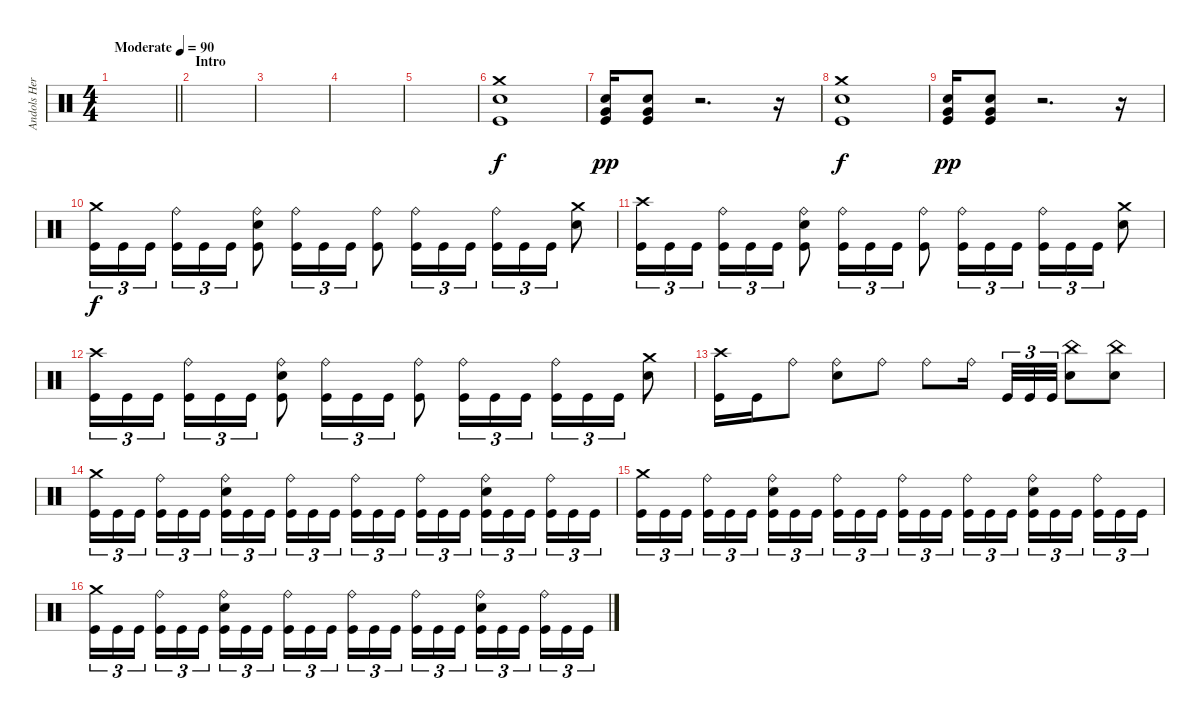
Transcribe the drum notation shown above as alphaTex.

\track ("Andols Herrick" "Andols Her") {instrument percussion}
\staff
\articulation defaults
\ts (4 4)
\tempo (90 "Moderate")
\clef neutral
\barLineRight lightlight
\ks c
|
\section ("" "Intro")
|
|
|
|
("Crash medium (hit)" "Electric Snare (hit)" "Kick (hit)").1 |
("Electric Snare (hit)" "Very Low Tom (hit)" "Kick (hit)").16{dy pp} ("Electric Snare (hit)" "Very Low Tom (hit)" "Kick (hit)").8 r.2{d} r.16 |
("Crash medium (hit)" "Electric Snare (hit)" "Kick (hit)").1{dy f} |
("Electric Snare (hit)" "Very Low Tom (hit)" "Kick (hit)").16{dy pp} ("Electric Snare (hit)" "Very Low Tom (hit)" "Kick (hit)").8 r.2{d} r.16 |
("Crash medium (hit)" "Kick (hit)").16{tu (3 2) dy f} "Kick (hit)".16{tu (3 2)} "Kick (hit)".16{tu (3 2) beam splitsecondary} ("Ride (bell)" "Kick (hit)").16{tu (3 2)} "Kick (hit)".16{tu (3 2)} "Kick (hit)".16{tu (3 2)} ("Ride (bell)" "Electric Snare (hit)" "Kick (hit)").8 ("Ride (bell)" "Kick (hit)").16{tu (3 2)} "Kick (hit)".16{tu (3 2)} "Kick (hit)".16{tu (3 2)} ("Ride (bell)" "Kick (hit)").8 ("Ride (bell)" "Kick (hit)").16{tu (3 2)} "Kick (hit)".16{tu (3 2)} "Kick (hit)".16{tu (3 2)} ("Ride (bell)" "Kick (hit)").16{tu (3 2)} "Kick (hit)".16{tu (3 2)} "Kick (hit)".16{tu (3 2)} ("Crash medium (hit)" "Electric Snare (hit)").8 |
("Crash high (hit)" "Kick (hit)").16{tu (3 2)} "Kick (hit)".16{tu (3 2)} "Kick (hit)".16{tu (3 2) beam splitsecondary} ("Ride (bell)" "Kick (hit)").16{tu (3 2)} "Kick (hit)".16{tu (3 2)} "Kick (hit)".16{tu (3 2)} ("Ride (bell)" "Electric Snare (hit)" "Kick (hit)").8 ("Ride (bell)" "Kick (hit)").16{tu (3 2)} "Kick (hit)".16{tu (3 2)} "Kick (hit)".16{tu (3 2)} ("Ride (bell)" "Kick (hit)").8 ("Ride (bell)" "Kick (hit)").16{tu (3 2)} "Kick (hit)".16{tu (3 2)} "Kick (hit)".16{tu (3 2)} ("Ride (bell)" "Kick (hit)").16{tu (3 2)} "Kick (hit)".16{tu (3 2)} "Kick (hit)".16{tu (3 2)} ("Crash medium (hit)" "Electric Snare (hit)").8 |
("Crash high (hit)" "Kick (hit)").16{tu (3 2)} "Kick (hit)".16{tu (3 2)} "Kick (hit)".16{tu (3 2) beam splitsecondary} ("Ride (bell)" "Kick (hit)").16{tu (3 2)} "Kick (hit)".16{tu (3 2)} "Kick (hit)".16{tu (3 2)} ("Ride (bell)" "Electric Snare (hit)" "Kick (hit)").8 ("Ride (bell)" "Kick (hit)").16{tu (3 2)} "Kick (hit)".16{tu (3 2)} "Kick (hit)".16{tu (3 2)} ("Ride (bell)" "Kick (hit)").8 ("Ride (bell)" "Kick (hit)").16{tu (3 2)} "Kick (hit)".16{tu (3 2)} "Kick (hit)".16{tu (3 2)} ("Ride (bell)" "Kick (hit)").16{tu (3 2)} "Kick (hit)".16{tu (3 2)} "Kick (hit)".16{tu (3 2)} ("Crash medium (hit)" "Electric Snare (hit)").8 |
("Crash high (hit)" "Kick (hit)").16 "Kick (hit)".16 "Ride (bell)".8 ("Ride (bell)" "Electric Snare (hit)").8 "Ride (bell)".8 "Ride (bell)".8 "Ride (bell)".16{beam splitsecondary} "Kick (hit)".32{tu (3 2)} "Kick (hit)".32{tu (3 2)} "Kick (hit)".32{tu (3 2)} ("China (hit)" "Electric Snare (hit)").8 ("China (hit)" "Electric Snare (hit)").8 |
("Crash medium (hit)" "Kick (hit)").16{tu (3 2)} "Kick (hit)".16{tu (3 2)} "Kick (hit)".16{tu (3 2) beam splitsecondary} ("Ride (bell)" "Kick (hit)").16{tu (3 2)} "Kick (hit)".16{tu (3 2)} "Kick (hit)".16{tu (3 2)} ("Ride (bell)" "Electric Snare (hit)" "Kick (hit)").16{tu (3 2)} "Kick (hit)".16{tu (3 2)} "Kick (hit)".16{tu (3 2) beam splitsecondary} ("Ride (bell)" "Kick (hit)").16{tu (3 2)} "Kick (hit)".16{tu (3 2)} "Kick (hit)".16{tu (3 2)} ("Ride (bell)" "Kick (hit)").16{tu (3 2)} "Kick (hit)".16{tu (3 2)} "Kick (hit)".16{tu (3 2) beam splitsecondary} ("Ride (bell)" "Kick (hit)").16{tu (3 2)} "Kick (hit)".16{tu (3 2)} "Kick (hit)".16{tu (3 2)} ("Ride (bell)" "Electric Snare (hit)" "Kick (hit)").16{tu (3 2)} "Kick (hit)".16{tu (3 2)} "Kick (hit)".16{tu (3 2) beam splitsecondary} ("Ride (bell)" "Kick (hit)").16{tu (3 2)} "Kick (hit)".16{tu (3 2)} "Kick (hit)".16{tu (3 2)} |
("Crash medium (hit)" "Kick (hit)").16{tu (3 2)} "Kick (hit)".16{tu (3 2)} "Kick (hit)".16{tu (3 2) beam splitsecondary} ("Ride (bell)" "Kick (hit)").16{tu (3 2)} "Kick (hit)".16{tu (3 2)} "Kick (hit)".16{tu (3 2)} ("Ride (bell)" "Electric Snare (hit)" "Kick (hit)").16{tu (3 2)} "Kick (hit)".16{tu (3 2)} "Kick (hit)".16{tu (3 2) beam splitsecondary} ("Ride (bell)" "Kick (hit)").16{tu (3 2)} "Kick (hit)".16{tu (3 2)} "Kick (hit)".16{tu (3 2)} ("Ride (bell)" "Kick (hit)").16{tu (3 2)} "Kick (hit)".16{tu (3 2)} "Kick (hit)".16{tu (3 2) beam splitsecondary} ("Ride (bell)" "Kick (hit)").16{tu (3 2)} "Kick (hit)".16{tu (3 2)} "Kick (hit)".16{tu (3 2)} ("Ride (bell)" "Electric Snare (hit)" "Kick (hit)").16{tu (3 2)} "Kick (hit)".16{tu (3 2)} "Kick (hit)".16{tu (3 2) beam splitsecondary} ("Ride (bell)" "Kick (hit)").16{tu (3 2)} "Kick (hit)".16{tu (3 2)} "Kick (hit)".16{tu (3 2)} |
("Crash medium (hit)" "Kick (hit)").16{tu (3 2)} "Kick (hit)".16{tu (3 2)} "Kick (hit)".16{tu (3 2) beam splitsecondary} ("Ride (bell)" "Kick (hit)").16{tu (3 2)} "Kick (hit)".16{tu (3 2)} "Kick (hit)".16{tu (3 2)} ("Ride (bell)" "Electric Snare (hit)" "Kick (hit)").16{tu (3 2)} "Kick (hit)".16{tu (3 2)} "Kick (hit)".16{tu (3 2) beam splitsecondary} ("Ride (bell)" "Kick (hit)").16{tu (3 2)} "Kick (hit)".16{tu (3 2)} "Kick (hit)".16{tu (3 2)} ("Ride (bell)" "Kick (hit)").16{tu (3 2)} "Kick (hit)".16{tu (3 2)} "Kick (hit)".16{tu (3 2) beam splitsecondary} ("Ride (bell)" "Kick (hit)").16{tu (3 2)} "Kick (hit)".16{tu (3 2)} "Kick (hit)".16{tu (3 2)} ("Ride (bell)" "Electric Snare (hit)" "Kick (hit)").16{tu (3 2)} "Kick (hit)".16{tu (3 2)} "Kick (hit)".16{tu (3 2) beam splitsecondary} ("Ride (bell)" "Kick (hit)").16{tu (3 2)} "Kick (hit)".16{tu (3 2)} "Kick (hit)".16{tu (3 2)}
